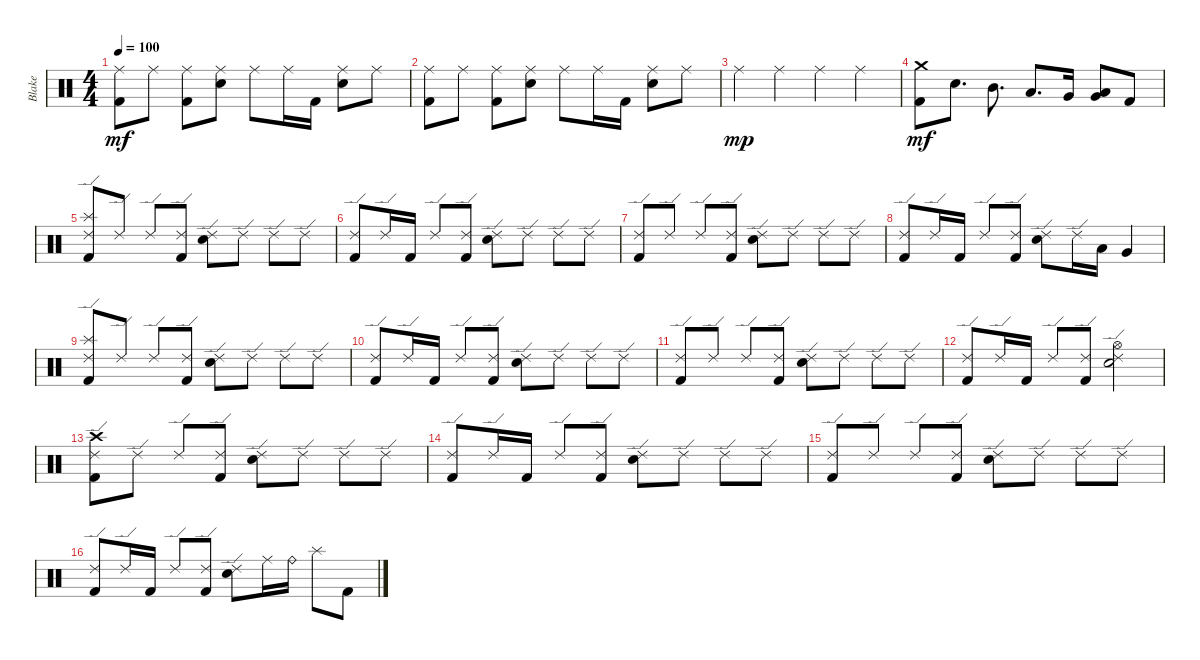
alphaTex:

\track ("Blake" "Blake") {instrument percussion}
\staff {score}
\articulation defaults
\ts (4 4)
\tempo 100
\clef neutral
\ks c
("Ride (middle)" "Kick (hit) 2").8{dy mf} "Ride (middle)".8 ("Ride (middle)" "Kick (hit) 2").8 ("Ride (middle)" "Snare (hit) 2").8 "Ride (middle)".8 "Ride (middle)".16 "Kick (hit) 2".16 ("Ride (middle)" "Snare (hit) 2").8 "Ride (middle)".8 |
("Ride (middle)" "Kick (hit) 2").8 "Ride (middle)".8 ("Ride (middle)" "Kick (hit) 2").8 ("Ride (middle)" "Snare (hit) 2").8 "Ride (middle)".8 "Ride (middle)".16 "Kick (hit) 2".16 ("Ride (middle)" "Snare (hit) 2").8 "Ride (middle)".8 |
"Ride (middle)".4{dy mp} "Ride (middle)".4 "Ride (middle)".4 "Ride (middle)".4 |
("Crash medium (hit)" "Kick (hit) 2").8{dy mf} "Snare (hit) 2".8{d} "Mid Tom (hit)".8{d} "Low Tom (hit)".8{d} "Very Low Tom (hit)".16 ("Low Tom (hit)" "Very Low Tom (hit)").8 "Kick (hit) 2".8 |
("Splash (hit)" "Ride (edge) 2" "Kick (hit) 2").8 "Ride (edge) 2".8 "Ride (edge) 2".8 ("Ride (edge) 2" "Kick (hit) 2").8 ("Ride (edge) 2" "Snare (hit) 2").8 "Ride (edge) 2".8 "Ride (edge) 2".8 "Ride (edge) 2".8 |
("Ride (edge) 2" "Kick (hit) 2").8 "Ride (edge) 2".16 "Kick (hit) 2".16 "Ride (edge) 2".8 ("Ride (edge) 2" "Kick (hit) 2").8 ("Ride (edge) 2" "Snare (hit) 2").8 "Ride (edge) 2".8 "Ride (edge) 2".8 "Ride (edge) 2".8 |
("Ride (edge) 2" "Kick (hit) 2").8 "Ride (edge) 2".8 "Ride (edge) 2".8 ("Ride (edge) 2" "Kick (hit) 2").8 ("Ride (edge) 2" "Snare (hit) 2").8 "Ride (edge) 2".8 "Ride (edge) 2".8 "Ride (edge) 2".8 |
("Ride (edge) 2" "Kick (hit) 2").8 "Ride (edge) 2".16 "Kick (hit) 2".16 "Ride (edge) 2".8 ("Ride (edge) 2" "Kick (hit) 2").8 ("Ride (edge) 2" "Snare (hit) 2").8 "Ride (edge) 2".16 "Low Tom (hit)".16 "Very Low Tom (hit)".4 |
("Splash (hit)" "Ride (edge) 2" "Kick (hit) 2").8 "Ride (edge) 2".8 "Ride (edge) 2".8 ("Ride (edge) 2" "Kick (hit) 2").8 ("Ride (edge) 2" "Snare (hit) 2").8 "Ride (edge) 2".8 "Ride (edge) 2".8 "Ride (edge) 2".8 |
("Ride (edge) 2" "Kick (hit) 2").8 "Ride (edge) 2".16 "Kick (hit) 2".16 "Ride (edge) 2".8 ("Ride (edge) 2" "Kick (hit) 2").8 ("Ride (edge) 2" "Snare (hit) 2").8 "Ride (edge) 2".8 "Ride (edge) 2".8 "Ride (edge) 2".8 |
("Ride (edge) 2" "Kick (hit) 2").8 "Ride (edge) 2".8 "Ride (edge) 2".8 ("Ride (edge) 2" "Kick (hit) 2").8 ("Ride (edge) 2" "Snare (hit) 2").8 "Ride (edge) 2".8 "Ride (edge) 2".8 "Ride (edge) 2".8 |
("Ride (edge) 2" "Kick (hit) 2").8 "Ride (edge) 2".16 "Kick (hit) 2".16 "Ride (edge) 2".8 ("Ride (edge) 2" "Kick (hit) 2").8 ("Hi-Hat (open)" "Ride (edge) 2" "Snare (hit) 2").2 |
("Crash high (hit)" "Ride (edge) 2" "Kick (hit) 2").8 "Ride (edge) 2".8 "Ride (edge) 2".8 ("Ride (edge) 2" "Kick (hit) 2").8 ("Ride (edge) 2" "Snare (hit) 2").8 "Ride (edge) 2".8 "Ride (edge) 2".8 "Ride (edge) 2".8 |
("Ride (edge) 2" "Kick (hit) 2").8 "Ride (edge) 2".16 "Kick (hit) 2".16 "Ride (edge) 2".8 ("Ride (edge) 2" "Kick (hit) 2").8 ("Ride (edge) 2" "Snare (hit) 2").8 "Ride (edge) 2".8 "Ride (edge) 2".8 "Ride (edge) 2".8 |
("Ride (edge) 2" "Kick (hit) 2").8 "Ride (edge) 2".8 "Ride (edge) 2".8 ("Ride (edge) 2" "Kick (hit) 2").8 ("Ride (edge) 2" "Snare (hit) 2").8 "Ride (edge) 2".8 "Ride (edge) 2".8 "Ride (edge) 2".8 |
("Ride (edge) 2" "Kick (hit) 2").8 "Ride (edge) 2".16 "Kick (hit) 2".16 "Ride (edge) 2".8 ("Ride (edge) 2" "Kick (hit) 2").8 ("Ride (edge) 2" "Snare (hit) 2").8 "Ride (middle)".16 "Ride (bell)".16 "Splash (hit)".8 "Kick (hit) 2".8
